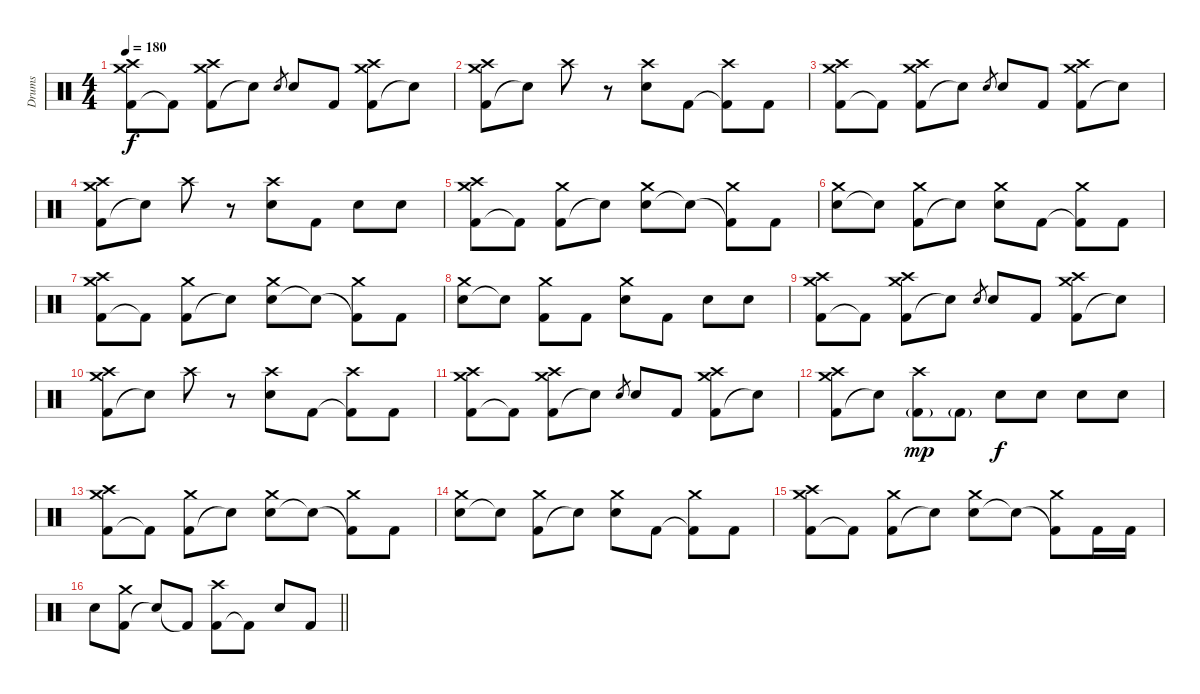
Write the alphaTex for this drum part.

\track ("Drums" "Drums") {instrument percussion}
\staff {score}
\articulation defaults
\ts (4 4)
\tempo 180
\clef neutral
\ks c
("Kick (hit) 2" "Crash medium (hit)" "Crash high (hit)").8{dy f} "Kick (hit) 2"{t}.8 ("Kick (hit) 2" "Crash medium (hit)" "Crash high (hit)").8 "Electric Snare (hit)"{t}.8 "Electric Snare (hit)".8{gr} "Electric Snare (hit)".8 "Kick (hit) 2".8 ("Kick (hit) 2" "Crash medium (hit)" "Crash high (hit)").8 "Snare (hit)"{t}.8 |
("Kick (hit) 2" "Crash medium (hit)" "Crash high (hit)").8 "Snare (hit)"{t}.8 "Crash high (hit)".8 r.8 ("Electric Snare (hit)" "Crash high (hit)").8 "Kick (hit) 2".8 ("Kick (hit) 2"{t} "Crash high (hit)").8 "Kick (hit) 2".8 |
("Kick (hit) 2" "Crash medium (hit)" "Crash high (hit)").8 "Kick (hit) 2"{t}.8 ("Kick (hit) 2" "Crash medium (hit)" "Crash high (hit)").8 "Electric Snare (hit)"{t}.8 "Electric Snare (hit)".8{gr} "Electric Snare (hit)".8 "Kick (hit) 2".8 ("Kick (hit) 2" "Crash medium (hit)" "Crash high (hit)").8 "Snare (hit)"{t}.8 |
("Kick (hit) 2" "Crash medium (hit)" "Crash high (hit)").8 "Snare (hit)"{t}.8 "Crash high (hit)".8 r.8 ("Electric Snare (hit)" "Crash high (hit)").8 "Kick (hit) 2".8 "Electric Snare (hit)".8 "Electric Snare (hit)".8 |
("Kick (hit) 2" "Crash medium (hit)" "Crash high (hit)").8 "Kick (hit) 2"{t}.8 ("Kick (hit) 2" "Crash medium (hit)").8 "Snare (hit)"{t}.8 ("Electric Snare (hit)" "Crash medium (hit)").8 "Snare (hit)"{t}.8 ("Kick (hit) 2"{t} "Crash medium (hit)").8 "Kick (hit) 2".8 |
("Electric Snare (hit)" "Crash medium (hit)").8 "Snare (hit)"{t}.8 ("Kick (hit) 2" "Crash medium (hit)").8 "Snare (hit)"{t}.8 ("Electric Snare (hit)" "Crash medium (hit)").8 "Kick (hit) 2".8 ("Kick (hit) 2"{t} "Crash medium (hit)").8 "Kick (hit) 2".8 |
("Kick (hit) 2" "Crash medium (hit)" "Crash high (hit)").8 "Kick (hit) 2"{t}.8 ("Kick (hit) 2" "Crash medium (hit)").8 "Snare (hit)"{t}.8 ("Electric Snare (hit)" "Crash medium (hit)").8 "Snare (hit)"{t}.8 ("Kick (hit) 2"{t} "Crash medium (hit)").8 "Kick (hit) 2".8 |
("Electric Snare (hit)" "Crash medium (hit)").8 "Snare (hit)"{t}.8 ("Kick (hit) 2" "Crash medium (hit)").8 "Kick (hit) 2".8 ("Electric Snare (hit)" "Crash medium (hit)").8 "Kick (hit) 2".8 "Electric Snare (hit)".8 "Electric Snare (hit)".8 |
("Kick (hit) 2" "Crash medium (hit)" "Crash high (hit)").8 "Kick (hit) 2"{t}.8 ("Kick (hit) 2" "Crash medium (hit)" "Crash high (hit)").8 "Electric Snare (hit)"{t}.8 "Electric Snare (hit)".8{gr} "Electric Snare (hit)".8 "Kick (hit) 2".8 ("Kick (hit) 2" "Crash medium (hit)" "Crash high (hit)").8 "Snare (hit)"{t}.8 |
("Kick (hit) 2" "Crash medium (hit)" "Crash high (hit)").8 "Snare (hit)"{t}.8 "Crash high (hit)".8 r.8 ("Electric Snare (hit)" "Crash high (hit)").8 "Kick (hit) 2".8 ("Kick (hit) 2"{t} "Crash high (hit)").8 "Kick (hit) 2".8 |
("Kick (hit) 2" "Crash medium (hit)" "Crash high (hit)").8 "Kick (hit) 2"{t}.8 ("Kick (hit) 2" "Crash medium (hit)" "Crash high (hit)").8 "Electric Snare (hit)"{t}.8 "Electric Snare (hit)".8{gr} "Electric Snare (hit)".8 "Kick (hit) 2".8 ("Kick (hit) 2" "Crash medium (hit)" "Crash high (hit)").8 "Snare (hit)"{t}.8 |
("Kick (hit) 2" "Crash medium (hit)" "Crash high (hit)").8 "Snare (hit)"{t}.8 ("Kick (hit) 2"{g} "Crash high (hit)").8{dy mp} "Kick (hit) 2"{g}.8 "Electric Snare (hit)".8{dy f} "Electric Snare (hit)".8 "Electric Snare (hit)".8 "Electric Snare (hit)".8 |
("Kick (hit) 2" "Crash medium (hit)" "Crash high (hit)").8 "Kick (hit) 2"{t}.8 ("Kick (hit) 2" "Crash medium (hit)").8 "Snare (hit)"{t}.8 ("Electric Snare (hit)" "Crash medium (hit)").8 "Snare (hit)"{t}.8 ("Kick (hit) 2"{t} "Crash medium (hit)").8 "Kick (hit) 2".8 |
("Electric Snare (hit)" "Crash medium (hit)").8 "Snare (hit)"{t}.8 ("Kick (hit) 2" "Crash medium (hit)").8 "Snare (hit)"{t}.8 ("Electric Snare (hit)" "Crash medium (hit)").8 "Kick (hit) 2".8 ("Kick (hit) 2"{t} "Crash medium (hit)").8 "Kick (hit) 2".8 |
("Kick (hit) 2" "Crash medium (hit)" "Crash high (hit)").8 "Kick (hit) 2"{t}.8 ("Kick (hit) 2" "Crash medium (hit)").8 "Snare (hit)"{t}.8 ("Electric Snare (hit)" "Crash medium (hit)").8 "Snare (hit)"{t}.8 ("Kick (hit) 2"{t} "Crash medium (hit)").8 "Kick (hit) 2".16 "Kick (hit) 2".16 |
\barLineRight lightlight "Electric Snare (hit)".8
("Kick (hit) 2" "Crash medium (hit)").8 "Snare (hit)"{t}.8 "Kick (hit) 2"{t}.8 ("Kick (hit) 2" "Crash high (hit)").8 "Kick (hit) 2"{t}.8 "Electric Snare (hit)".8 "Kick (hit) 2".8
